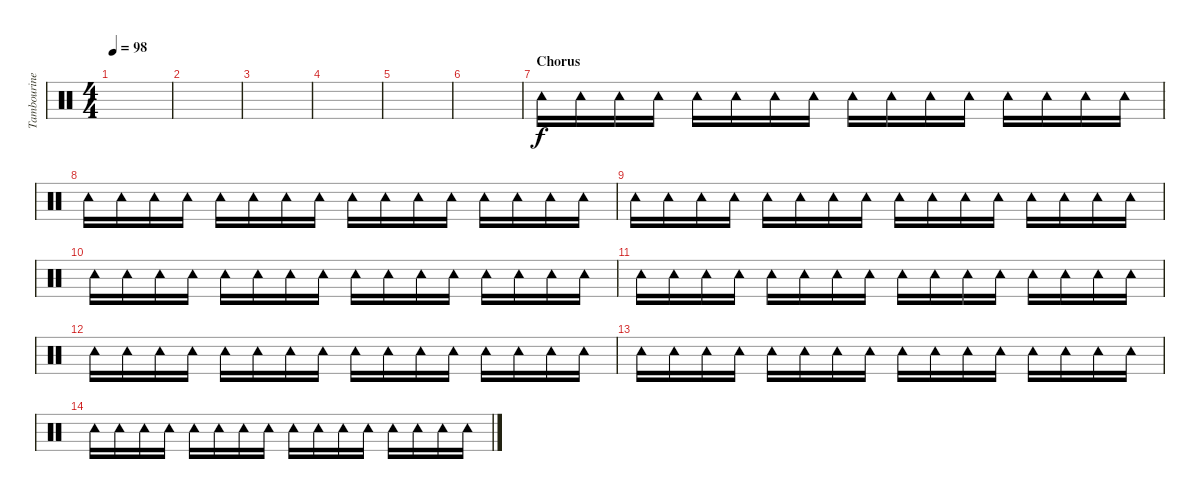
\track ("Tambourine" "Tambourine") {instrument percussion}
\staff {score}
\articulation defaults
\ts (4 4)
\tempo 98
\clef neutral
\ks c
|
|
|
|
|
|
\section ("" "Chorus")
"Tambourine (hit)".16 "Tambourine (hit)".16 "Tambourine (hit)".16 "Tambourine (hit)".16 "Tambourine (hit)".16 "Tambourine (hit)".16 "Tambourine (hit)".16 "Tambourine (hit)".16 "Tambourine (hit)".16 "Tambourine (hit)".16 "Tambourine (hit)".16 "Tambourine (hit)".16 "Tambourine (hit)".16 "Tambourine (hit)".16 "Tambourine (hit)".16 "Tambourine (hit)".16 |
"Tambourine (hit)".16 "Tambourine (hit)".16 "Tambourine (hit)".16 "Tambourine (hit)".16 "Tambourine (hit)".16 "Tambourine (hit)".16 "Tambourine (hit)".16 "Tambourine (hit)".16 "Tambourine (hit)".16 "Tambourine (hit)".16 "Tambourine (hit)".16 "Tambourine (hit)".16 "Tambourine (hit)".16 "Tambourine (hit)".16 "Tambourine (hit)".16 "Tambourine (hit)".16 |
"Tambourine (hit)".16 "Tambourine (hit)".16 "Tambourine (hit)".16 "Tambourine (hit)".16 "Tambourine (hit)".16 "Tambourine (hit)".16 "Tambourine (hit)".16 "Tambourine (hit)".16 "Tambourine (hit)".16 "Tambourine (hit)".16 "Tambourine (hit)".16 "Tambourine (hit)".16 "Tambourine (hit)".16 "Tambourine (hit)".16 "Tambourine (hit)".16 "Tambourine (hit)".16 |
"Tambourine (hit)".16 "Tambourine (hit)".16 "Tambourine (hit)".16 "Tambourine (hit)".16 "Tambourine (hit)".16 "Tambourine (hit)".16 "Tambourine (hit)".16 "Tambourine (hit)".16 "Tambourine (hit)".16 "Tambourine (hit)".16 "Tambourine (hit)".16 "Tambourine (hit)".16 "Tambourine (hit)".16 "Tambourine (hit)".16 "Tambourine (hit)".16 "Tambourine (hit)".16 |
"Tambourine (hit)".16 "Tambourine (hit)".16 "Tambourine (hit)".16 "Tambourine (hit)".16 "Tambourine (hit)".16 "Tambourine (hit)".16 "Tambourine (hit)".16 "Tambourine (hit)".16 "Tambourine (hit)".16 "Tambourine (hit)".16 "Tambourine (hit)".16 "Tambourine (hit)".16 "Tambourine (hit)".16 "Tambourine (hit)".16 "Tambourine (hit)".16 "Tambourine (hit)".16 |
"Tambourine (hit)".16 "Tambourine (hit)".16 "Tambourine (hit)".16 "Tambourine (hit)".16 "Tambourine (hit)".16 "Tambourine (hit)".16 "Tambourine (hit)".16 "Tambourine (hit)".16 "Tambourine (hit)".16 "Tambourine (hit)".16 "Tambourine (hit)".16 "Tambourine (hit)".16 "Tambourine (hit)".16 "Tambourine (hit)".16 "Tambourine (hit)".16 "Tambourine (hit)".16 |
"Tambourine (hit)".16 "Tambourine (hit)".16 "Tambourine (hit)".16 "Tambourine (hit)".16 "Tambourine (hit)".16 "Tambourine (hit)".16 "Tambourine (hit)".16 "Tambourine (hit)".16 "Tambourine (hit)".16 "Tambourine (hit)".16 "Tambourine (hit)".16 "Tambourine (hit)".16 "Tambourine (hit)".16 "Tambourine (hit)".16 "Tambourine (hit)".16 "Tambourine (hit)".16 |
"Tambourine (hit)".16 "Tambourine (hit)".16 "Tambourine (hit)".16 "Tambourine (hit)".16 "Tambourine (hit)".16 "Tambourine (hit)".16 "Tambourine (hit)".16 "Tambourine (hit)".16 "Tambourine (hit)".16 "Tambourine (hit)".16 "Tambourine (hit)".16 "Tambourine (hit)".16 "Tambourine (hit)".16 "Tambourine (hit)".16 "Tambourine (hit)".16 "Tambourine (hit)".16
